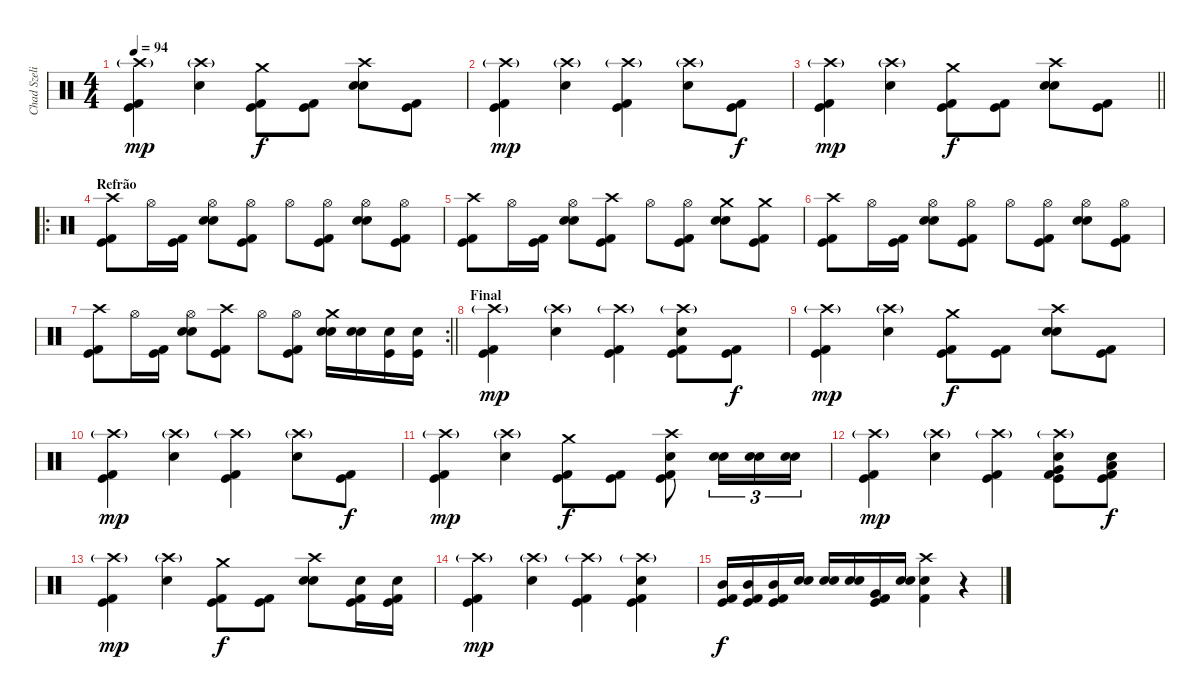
\track ("Chad Szeliga" "Chad Szeli") {instrument percussion}
\staff {score}
\articulation defaults
\ts (4 4)
\tempo 94
\clef neutral
\ks c
("Crash high (hit)"{g} "Kick (hit) 2" "Kick (hit)").4{dy mp} ("Crash high (hit)"{g} "Snare (hit) 2").4 ("Crash medium (hit)" "Kick (hit) 2" "Kick (hit)").8{dy f} ("Kick (hit) 2" "Kick (hit)").8 ("Crash high (hit)" "Snare (hit) 2" "Snare (hit) 2").8 ("Kick (hit) 2" "Kick (hit)").8 |
("Crash high (hit)"{g} "Kick (hit) 2" "Kick (hit)").4{dy mp} ("Crash high (hit)"{g} "Snare (hit) 2").4 ("Crash high (hit)"{g} "Kick (hit) 2" "Kick (hit)").4 ("Crash high (hit)"{g} "Snare (hit) 2").8 ("Kick (hit) 2" "Kick (hit)").8{dy f} |
\barLineRight lightlight
("Crash high (hit)"{g} "Kick (hit) 2" "Kick (hit)").4{dy mp} ("Crash high (hit)"{g} "Snare (hit) 2").4 ("Crash medium (hit)" "Kick (hit) 2" "Kick (hit)").8{dy f} ("Kick (hit) 2" "Kick (hit)").8 ("Crash high (hit)" "Snare (hit) 2" "Snare (hit) 2").8 ("Kick (hit) 2" "Kick (hit)").8 |
\ro
\section ("" "Refrão")
("Crash high (hit)" "Kick (hit) 2" "Kick (hit)").8 "Hi-Hat (open)".16 ("Kick (hit) 2" "Kick (hit)").16 ("Snare (hit) 2" "Snare (hit) 2" "Hi-Hat (open)").8 ("Kick (hit) 2" "Kick (hit)" "Hi-Hat (open)").8 "Hi-Hat (open)".8 ("Kick (hit) 2" "Kick (hit)" "Hi-Hat (open)").8 ("Snare (hit) 2" "Snare (hit) 2" "Hi-Hat (open)").8 ("Kick (hit) 2" "Kick (hit)" "Hi-Hat (open)").8 |
("Crash high (hit)" "Kick (hit) 2" "Kick (hit)").8 "Hi-Hat (open)".16 ("Kick (hit) 2" "Kick (hit)").16 ("Snare (hit) 2" "Snare (hit) 2" "Hi-Hat (open)").8 ("Crash high (hit)" "Kick (hit) 2" "Kick (hit)").8 "Hi-Hat (open)".8 ("Kick (hit) 2" "Kick (hit)" "Hi-Hat (open)").8 ("Crash medium (hit)" "Snare (hit) 2" "Snare (hit) 2").8 ("Crash medium (hit)" "Kick (hit) 2" "Kick (hit)").8 |
("Crash high (hit)" "Kick (hit) 2" "Kick (hit)").8 "Hi-Hat (open)".16 ("Kick (hit) 2" "Kick (hit)").16 ("Snare (hit) 2" "Snare (hit) 2" "Hi-Hat (open)").8 ("Kick (hit) 2" "Kick (hit)" "Hi-Hat (open)").8 "Hi-Hat (open)".8 ("Kick (hit) 2" "Kick (hit)" "Hi-Hat (open)").8 ("Snare (hit) 2" "Snare (hit) 2" "Hi-Hat (open)").8 ("Kick (hit) 2" "Kick (hit)" "Hi-Hat (open)").8 |
\rc 2
\barLineRight lightlight
("Crash high (hit)" "Kick (hit) 2" "Kick (hit)").8 "Hi-Hat (open)".16 ("Kick (hit) 2" "Kick (hit)").16 ("Snare (hit) 2" "Snare (hit) 2" "Hi-Hat (open)").8 ("Crash high (hit)" "Kick (hit) 2" "Kick (hit)").8 "Hi-Hat (open)".8 ("Kick (hit) 2" "Kick (hit)" "Hi-Hat (open)").8 ("Crash medium (hit)" "Snare (hit) 2" "Snare (hit) 2").16 ("Snare (hit) 2" "Snare (hit) 2").16 ("Kick (hit)" "Snare (hit) 2").16 ("Kick (hit)" "Snare (hit) 2").16 |
\section ("" "Final")
("Crash high (hit)"{g} "Kick (hit) 2" "Kick (hit)").4{dy mp} ("Crash high (hit)"{g} "Snare (hit) 2").4 ("Crash high (hit)"{g} "Kick (hit) 2" "Kick (hit)").4 ("Crash high (hit)"{g} "Kick (hit) 2" "Kick (hit)" "Snare (hit) 2").8 ("Kick (hit) 2" "Kick (hit)").8{dy f} |
("Crash high (hit)"{g} "Kick (hit) 2" "Kick (hit)").4{dy mp} ("Crash high (hit)"{g} "Snare (hit) 2").4 ("Crash medium (hit)" "Kick (hit) 2" "Kick (hit)").8{dy f} ("Kick (hit) 2" "Kick (hit)").8 ("Crash high (hit)" "Snare (hit) 2" "Snare (hit) 2").8 ("Kick (hit) 2" "Kick (hit)").8 |
("Crash high (hit)"{g} "Kick (hit) 2" "Kick (hit)").4{dy mp} ("Crash high (hit)"{g} "Snare (hit) 2").4 ("Crash high (hit)"{g} "Kick (hit) 2" "Kick (hit)").4 ("Crash high (hit)"{g} "Snare (hit) 2").8 ("Kick (hit) 2" "Kick (hit)").8{dy f} |
("Crash high (hit)"{g} "Kick (hit) 2" "Kick (hit)").4{dy mp} ("Crash high (hit)"{g} "Snare (hit) 2").4 ("Crash medium (hit)" "Kick (hit) 2" "Kick (hit)").8{dy f} ("Kick (hit) 2" "Kick (hit)").8 ("Crash high (hit)" "Kick (hit) 2" "Kick (hit)" "Snare (hit) 2").8 ("Snare (hit) 2" "Snare (hit) 2").16{tu (3 2)} ("Snare (hit) 2" "Snare (hit) 2").16{tu (3 2)} ("Snare (hit) 2" "Snare (hit) 2").16{tu (3 2)} |
("Crash high (hit)"{g} "Kick (hit) 2" "Kick (hit)").4{dy mp} ("Crash high (hit)"{g} "Snare (hit) 2").4 ("Crash high (hit)"{g} "Kick (hit) 2" "Kick (hit)").4 ("Crash high (hit)"{g} "Kick (hit) 2" "Kick (hit)" "Snare (hit) 2" "Very Low Tom (hit)").8 ("Kick (hit) 2" "Kick (hit)" "Snare (hit) 2" "Low Tom (hit)").8{dy f} |
("Crash high (hit)"{g} "Kick (hit) 2" "Kick (hit)").4{dy mp} ("Crash high (hit)"{g} "Snare (hit) 2").4 ("Crash medium (hit)" "Kick (hit) 2" "Kick (hit)").8{dy f} ("Kick (hit) 2" "Kick (hit)").8 ("Crash high (hit)" "Snare (hit) 2" "Snare (hit) 2").8 ("Kick (hit) 2" "Kick (hit)" "Snare (hit) 2").16 ("Kick (hit) 2" "Kick (hit)" "Snare (hit) 2").16 |
("Crash high (hit)"{g} "Kick (hit) 2" "Kick (hit)").4{dy mp} ("Crash high (hit)"{g} "Snare (hit) 2").4 ("Crash high (hit)"{g} "Kick (hit) 2" "Kick (hit)").4 ("Crash high (hit)"{g} "Kick (hit) 2" "Kick (hit)" "Snare (hit) 2").4 |
("Kick (hit) 2" "Kick (hit)" "Mid Tom (hit)").16{dy f} ("Kick (hit) 2" "Kick (hit)" "Mid Tom (hit)").16 ("Kick (hit) 2" "Kick (hit)" "Mid Tom (hit)").16 ("Snare (hit) 2" "Snare (hit) 2").16 ("Snare (hit) 2" "Snare (hit) 2").16 ("Snare (hit) 2" "Snare (hit) 2").16 ("Kick (hit) 2" "Kick (hit)" "Very Low Tom (hit)").16 ("Snare (hit) 2" "Snare (hit) 2").16 ("Crash high (hit)" "Kick (hit) 2" "Snare (hit) 2").4 r.4
